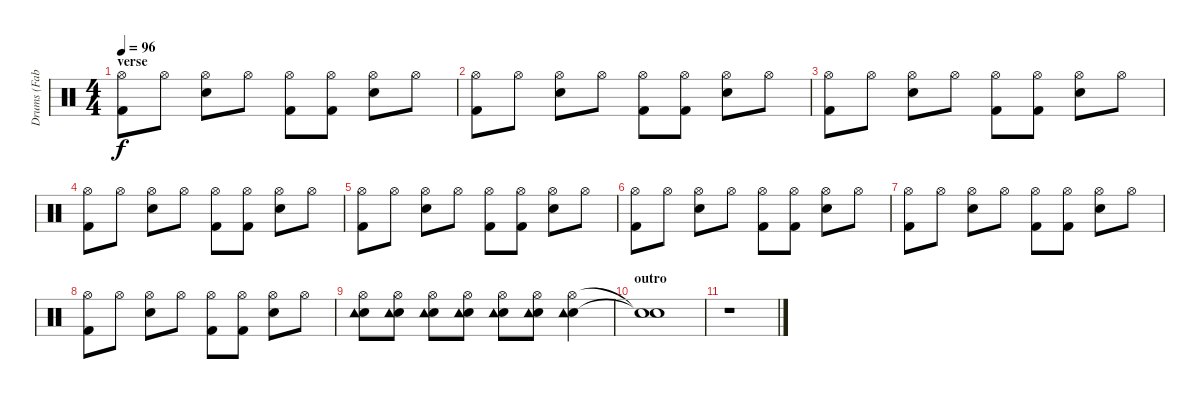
\track ("Drums (Fab Moretti)" "Drums (Fab") {instrument percussion}
\staff {score}
\articulation defaults
\ts (4 4)
\section ("" "verse")
\tempo 96
\clef neutral
\ks c
("Hi-Hat (open)" "Kick (hit) 2").8{dy f} "Hi-Hat (open)".8 ("Hi-Hat (open)" "Snare (hit) 2").8 "Hi-Hat (open)".8 ("Hi-Hat (open)" "Kick (hit) 2").8 ("Hi-Hat (open)" "Kick (hit) 2").8 ("Hi-Hat (open)" "Snare (hit) 2").8 "Hi-Hat (open)".8 |
("Hi-Hat (open)" "Kick (hit) 2").8 "Hi-Hat (open)".8 ("Hi-Hat (open)" "Snare (hit) 2").8 "Hi-Hat (open)".8 ("Hi-Hat (open)" "Kick (hit) 2").8 ("Hi-Hat (open)" "Kick (hit) 2").8 ("Hi-Hat (open)" "Snare (hit) 2").8 "Hi-Hat (open)".8 |
("Hi-Hat (open)" "Kick (hit) 2").8 "Hi-Hat (open)".8 ("Hi-Hat (open)" "Snare (hit) 2").8 "Hi-Hat (open)".8 ("Hi-Hat (open)" "Kick (hit) 2").8 ("Hi-Hat (open)" "Kick (hit) 2").8 ("Hi-Hat (open)" "Snare (hit) 2").8 "Hi-Hat (open)".8 |
("Hi-Hat (open)" "Kick (hit) 2").8 "Hi-Hat (open)".8 ("Hi-Hat (open)" "Snare (hit) 2").8 "Hi-Hat (open)".8 ("Hi-Hat (open)" "Kick (hit) 2").8 ("Hi-Hat (open)" "Kick (hit) 2").8 ("Hi-Hat (open)" "Snare (hit) 2").8 "Hi-Hat (open)".8 |
("Hi-Hat (open)" "Kick (hit) 2").8 "Hi-Hat (open)".8 ("Hi-Hat (open)" "Snare (hit) 2").8 "Hi-Hat (open)".8 ("Hi-Hat (open)" "Kick (hit) 2").8 ("Hi-Hat (open)" "Kick (hit) 2").8 ("Hi-Hat (open)" "Snare (hit) 2").8 "Hi-Hat (open)".8 |
("Hi-Hat (open)" "Kick (hit) 2").8 "Hi-Hat (open)".8 ("Hi-Hat (open)" "Snare (hit) 2").8 "Hi-Hat (open)".8 ("Hi-Hat (open)" "Kick (hit) 2").8 ("Hi-Hat (open)" "Kick (hit) 2").8 ("Hi-Hat (open)" "Snare (hit) 2").8 "Hi-Hat (open)".8 |
("Hi-Hat (open)" "Kick (hit) 2").8 "Hi-Hat (open)".8 ("Hi-Hat (open)" "Snare (hit) 2").8 "Hi-Hat (open)".8 ("Hi-Hat (open)" "Kick (hit) 2").8 ("Hi-Hat (open)" "Kick (hit) 2").8 ("Hi-Hat (open)" "Snare (hit) 2").8 "Hi-Hat (open)".8 |
("Hi-Hat (open)" "Kick (hit) 2").8 "Hi-Hat (open)".8 ("Hi-Hat (open)" "Snare (hit) 2").8 "Hi-Hat (open)".8 ("Hi-Hat (open)" "Kick (hit) 2").8 ("Hi-Hat (open)" "Kick (hit) 2").8 ("Hi-Hat (open)" "Snare (hit) 2").8 "Hi-Hat (open)".8 |
("Hi-Hat (open)" "Snare (hit) 2" "Tambourine (hit)").8 ("Hi-Hat (open)" "Snare (hit) 2" "Tambourine (hit)").8 ("Hi-Hat (open)" "Snare (hit) 2" "Tambourine (hit)").8 ("Hi-Hat (open)" "Snare (hit) 2" "Tambourine (hit)").8 ("Hi-Hat (open)" "Snare (hit) 2" "Tambourine (hit)").8 ("Hi-Hat (open)" "Snare (hit) 2" "Tambourine (hit)").8 ("Hi-Hat (open)" "Snare (hit) 2" "Tambourine (hit)").4 |
\section ("" "outro")
("Snare (hit)"{t} "Snare (hit)"{t}).1 |
r.1
